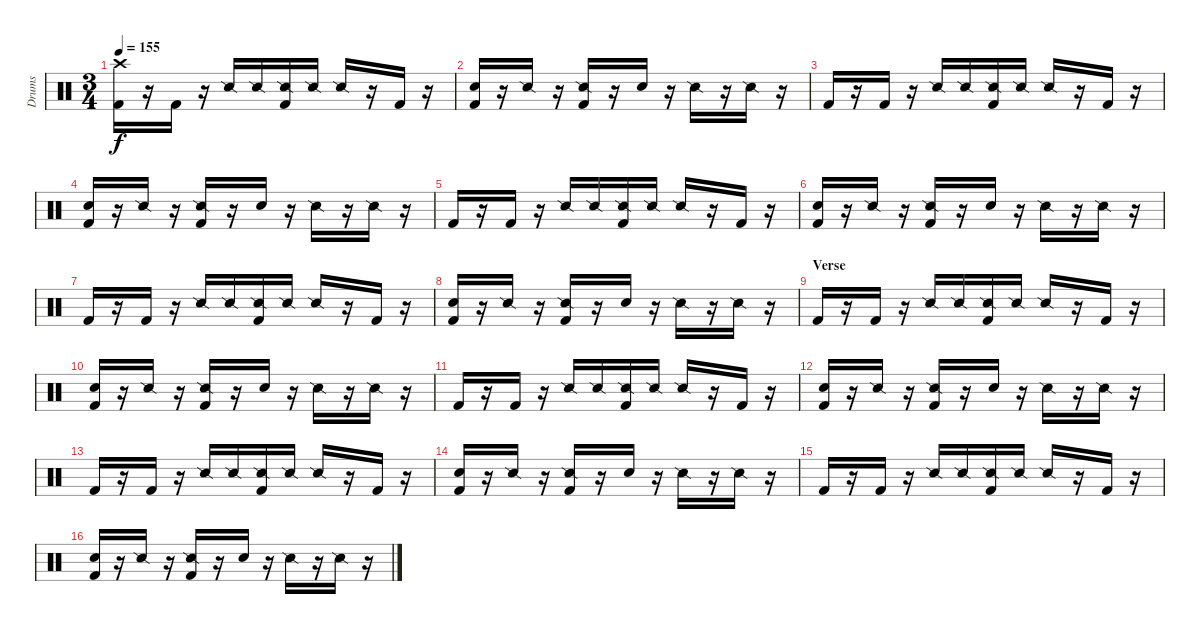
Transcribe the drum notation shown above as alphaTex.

\track ("Drums" "Drums") {instrument percussion}
\staff {score}
\articulation defaults
\ts (3 4)
\tempo 155
\clef neutral
\ks c
("Crash high (hit)" "Kick (hit) 2").16{dy f} r.16 "Kick (hit) 2".16 r.16 "Snare (side stick) 2".16 "Snare (side stick) 2".16 ("Snare (side stick) 2" "Kick (hit) 2").16 "Snare (side stick) 2".16 "Snare (side stick) 2".16 r.16 "Kick (hit) 2".16 r.16 |
("Snare (hit) 2" "Kick (hit) 2").16 r.16 "Snare (side stick) 2".16 r.16 ("Snare (side stick) 2" "Kick (hit) 2").16 r.16 "Snare (hit) 2".16 r.16 "Snare (side stick) 2".16 r.16 "Snare (side stick) 2".16 r.16 |
"Kick (hit) 2".16 r.16 "Kick (hit) 2".16 r.16 "Snare (side stick) 2".16 "Snare (side stick) 2".16 ("Snare (side stick) 2" "Kick (hit) 2").16 "Snare (side stick) 2".16 "Snare (side stick) 2".16 r.16 "Kick (hit) 2".16 r.16 |
("Snare (hit) 2" "Kick (hit) 2").16 r.16 "Snare (side stick) 2".16 r.16 ("Snare (side stick) 2" "Kick (hit) 2").16 r.16 "Snare (hit) 2".16 r.16 "Snare (side stick) 2".16 r.16 "Snare (side stick) 2".16 r.16 |
"Kick (hit) 2".16 r.16 "Kick (hit) 2".16 r.16 "Snare (side stick) 2".16 "Snare (side stick) 2".16 ("Snare (side stick) 2" "Kick (hit) 2").16 "Snare (side stick) 2".16 "Snare (side stick) 2".16 r.16 "Kick (hit) 2".16 r.16 |
("Snare (hit) 2" "Kick (hit) 2").16 r.16 "Snare (side stick) 2".16 r.16 ("Snare (side stick) 2" "Kick (hit) 2").16 r.16 "Snare (hit) 2".16 r.16 "Snare (side stick) 2".16 r.16 "Snare (side stick) 2".16 r.16 |
"Kick (hit) 2".16 r.16 "Kick (hit) 2".16 r.16 "Snare (side stick) 2".16 "Snare (side stick) 2".16 ("Snare (side stick) 2" "Kick (hit) 2").16 "Snare (side stick) 2".16 "Snare (side stick) 2".16 r.16 "Kick (hit) 2".16 r.16 |
("Snare (hit) 2" "Kick (hit) 2").16 r.16 "Snare (side stick) 2".16 r.16 ("Snare (side stick) 2" "Kick (hit) 2").16 r.16 "Snare (hit) 2".16 r.16 "Snare (side stick) 2".16 r.16 "Snare (side stick) 2".16 r.16 |
\section ("" "Verse")
"Kick (hit) 2".16 r.16 "Kick (hit) 2".16 r.16 "Snare (side stick) 2".16 "Snare (side stick) 2".16 ("Snare (side stick) 2" "Kick (hit) 2").16 "Snare (side stick) 2".16 "Snare (side stick) 2".16 r.16 "Kick (hit) 2".16 r.16 |
("Snare (hit) 2" "Kick (hit) 2").16 r.16 "Snare (side stick) 2".16 r.16 ("Snare (side stick) 2" "Kick (hit) 2").16 r.16 "Snare (hit) 2".16 r.16 "Snare (side stick) 2".16 r.16 "Snare (side stick) 2".16 r.16 |
"Kick (hit) 2".16 r.16 "Kick (hit) 2".16 r.16 "Snare (side stick) 2".16 "Snare (side stick) 2".16 ("Snare (side stick) 2" "Kick (hit) 2").16 "Snare (side stick) 2".16 "Snare (side stick) 2".16 r.16 "Kick (hit) 2".16 r.16 |
("Snare (hit) 2" "Kick (hit) 2").16 r.16 "Snare (side stick) 2".16 r.16 ("Snare (side stick) 2" "Kick (hit) 2").16 r.16 "Snare (hit) 2".16 r.16 "Snare (side stick) 2".16 r.16 "Snare (side stick) 2".16 r.16 |
"Kick (hit) 2".16 r.16 "Kick (hit) 2".16 r.16 "Snare (side stick) 2".16 "Snare (side stick) 2".16 ("Snare (side stick) 2" "Kick (hit) 2").16 "Snare (side stick) 2".16 "Snare (side stick) 2".16 r.16 "Kick (hit) 2".16 r.16 |
("Snare (hit) 2" "Kick (hit) 2").16 r.16 "Snare (side stick) 2".16 r.16 ("Snare (side stick) 2" "Kick (hit) 2").16 r.16 "Snare (hit) 2".16 r.16 "Snare (side stick) 2".16 r.16 "Snare (side stick) 2".16 r.16 |
"Kick (hit) 2".16 r.16 "Kick (hit) 2".16 r.16 "Snare (side stick) 2".16 "Snare (side stick) 2".16 ("Snare (side stick) 2" "Kick (hit) 2").16 "Snare (side stick) 2".16 "Snare (side stick) 2".16 r.16 "Kick (hit) 2".16 r.16 |
("Snare (hit) 2" "Kick (hit) 2").16 r.16 "Snare (side stick) 2".16 r.16 ("Snare (side stick) 2" "Kick (hit) 2").16 r.16 "Snare (hit) 2".16 r.16 "Snare (side stick) 2".16 r.16 "Snare (side stick) 2".16 r.16
